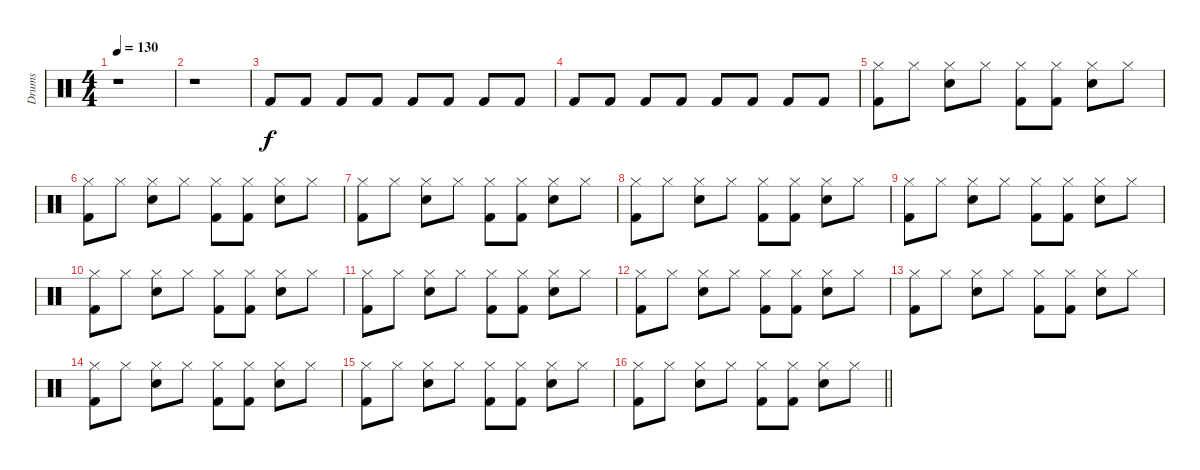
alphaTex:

\track ("Drums" "Drums") {instrument percussion}
\staff {score}
\articulation defaults
\ts (4 4)
\tempo 130
\clef neutral
\ks c
r.1{dy f} |
r.1 |
"Kick (hit) 2".8 "Kick (hit) 2".8 "Kick (hit) 2".8 "Kick (hit) 2".8 "Kick (hit) 2".8 "Kick (hit) 2".8 "Kick (hit) 2".8 "Kick (hit) 2".8 |
"Kick (hit) 2".8 "Kick (hit) 2".8 "Kick (hit) 2".8 "Kick (hit) 2".8 "Kick (hit) 2".8 "Kick (hit) 2".8 "Kick (hit) 2".8 "Kick (hit) 2".8 |
("Hi-Hat (closed)" "Kick (hit) 2").8 "Hi-Hat (closed)".8 ("Hi-Hat (closed)" "Snare (hit) 2").8 "Hi-Hat (closed)".8 ("Hi-Hat (closed)" "Kick (hit) 2").8 ("Hi-Hat (closed)" "Kick (hit) 2").8 ("Hi-Hat (closed)" "Snare (hit) 2").8 "Hi-Hat (closed)".8 |
("Hi-Hat (closed)" "Kick (hit) 2").8 "Hi-Hat (closed)".8 ("Hi-Hat (closed)" "Snare (hit) 2").8 "Hi-Hat (closed)".8 ("Hi-Hat (closed)" "Kick (hit) 2").8 ("Hi-Hat (closed)" "Kick (hit) 2").8 ("Hi-Hat (closed)" "Snare (hit) 2").8 "Hi-Hat (closed)".8 |
("Hi-Hat (closed)" "Kick (hit) 2").8 "Hi-Hat (closed)".8 ("Hi-Hat (closed)" "Snare (hit) 2").8 "Hi-Hat (closed)".8 ("Hi-Hat (closed)" "Kick (hit) 2").8 ("Hi-Hat (closed)" "Kick (hit) 2").8 ("Hi-Hat (closed)" "Snare (hit) 2").8 "Hi-Hat (closed)".8 |
("Hi-Hat (closed)" "Kick (hit) 2").8 "Hi-Hat (closed)".8 ("Hi-Hat (closed)" "Snare (hit) 2").8 "Hi-Hat (closed)".8 ("Hi-Hat (closed)" "Kick (hit) 2").8 ("Hi-Hat (closed)" "Kick (hit) 2").8 ("Hi-Hat (closed)" "Snare (hit) 2").8 "Hi-Hat (closed)".8 |
("Hi-Hat (closed)" "Kick (hit) 2").8 "Hi-Hat (closed)".8 ("Hi-Hat (closed)" "Snare (hit) 2").8 "Hi-Hat (closed)".8 ("Hi-Hat (closed)" "Kick (hit) 2").8 ("Hi-Hat (closed)" "Kick (hit) 2").8 ("Hi-Hat (closed)" "Snare (hit) 2").8 "Hi-Hat (closed)".8 |
("Hi-Hat (closed)" "Kick (hit) 2").8 "Hi-Hat (closed)".8 ("Hi-Hat (closed)" "Snare (hit) 2").8 "Hi-Hat (closed)".8 ("Hi-Hat (closed)" "Kick (hit) 2").8 ("Hi-Hat (closed)" "Kick (hit) 2").8 ("Hi-Hat (closed)" "Snare (hit) 2").8 "Hi-Hat (closed)".8 |
("Hi-Hat (closed)" "Kick (hit) 2").8 "Hi-Hat (closed)".8 ("Hi-Hat (closed)" "Snare (hit) 2").8 "Hi-Hat (closed)".8 ("Hi-Hat (closed)" "Kick (hit) 2").8 ("Hi-Hat (closed)" "Kick (hit) 2").8 ("Hi-Hat (closed)" "Snare (hit) 2").8 "Hi-Hat (closed)".8 |
("Hi-Hat (closed)" "Kick (hit) 2").8 "Hi-Hat (closed)".8 ("Hi-Hat (closed)" "Snare (hit) 2").8 "Hi-Hat (closed)".8 ("Hi-Hat (closed)" "Kick (hit) 2").8 ("Hi-Hat (closed)" "Kick (hit) 2").8 ("Hi-Hat (closed)" "Snare (hit) 2").8 "Hi-Hat (closed)".8 |
("Hi-Hat (closed)" "Kick (hit) 2").8 "Hi-Hat (closed)".8 ("Hi-Hat (closed)" "Snare (hit) 2").8 "Hi-Hat (closed)".8 ("Hi-Hat (closed)" "Kick (hit) 2").8 ("Hi-Hat (closed)" "Kick (hit) 2").8 ("Hi-Hat (closed)" "Snare (hit) 2").8 "Hi-Hat (closed)".8 |
("Hi-Hat (closed)" "Kick (hit) 2").8 "Hi-Hat (closed)".8 ("Hi-Hat (closed)" "Snare (hit) 2").8 "Hi-Hat (closed)".8 ("Hi-Hat (closed)" "Kick (hit) 2").8 ("Hi-Hat (closed)" "Kick (hit) 2").8 ("Hi-Hat (closed)" "Snare (hit) 2").8 "Hi-Hat (closed)".8 |
("Hi-Hat (closed)" "Kick (hit) 2").8 "Hi-Hat (closed)".8 ("Hi-Hat (closed)" "Snare (hit) 2").8 "Hi-Hat (closed)".8 ("Hi-Hat (closed)" "Kick (hit) 2").8 ("Hi-Hat (closed)" "Kick (hit) 2").8 ("Hi-Hat (closed)" "Snare (hit) 2").8 "Hi-Hat (closed)".8 |
\barLineRight lightlight
("Hi-Hat (closed)" "Kick (hit) 2").8 "Hi-Hat (closed)".8 ("Hi-Hat (closed)" "Snare (hit) 2").8 "Hi-Hat (closed)".8 ("Hi-Hat (closed)" "Kick (hit) 2").8 ("Hi-Hat (closed)" "Kick (hit) 2").8 ("Hi-Hat (closed)" "Snare (hit) 2").8 "Hi-Hat (closed)".8
